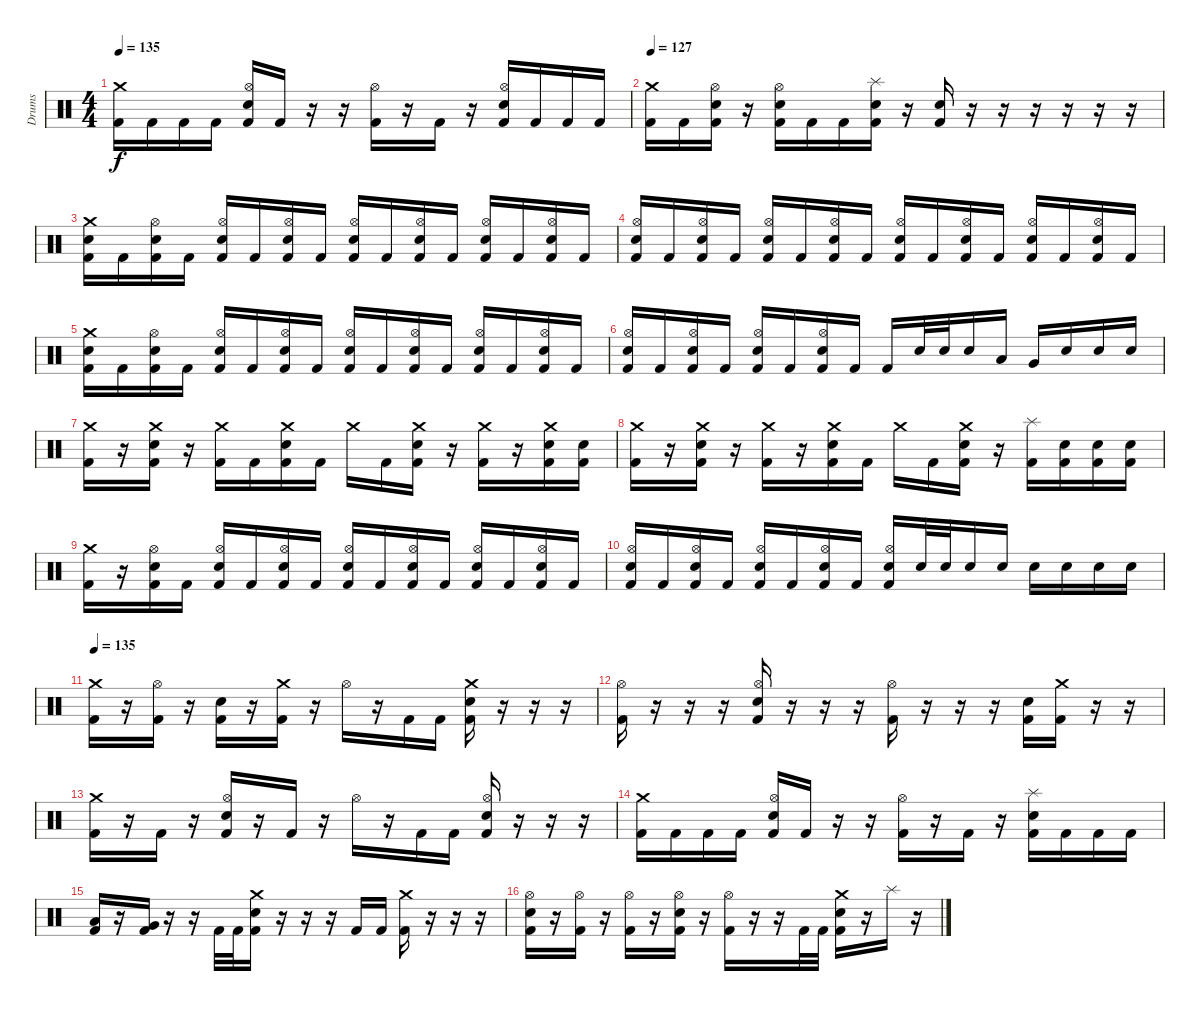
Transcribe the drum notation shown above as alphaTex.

\track ("Drums" "Drums") {instrument percussion}
\staff {score}
\articulation defaults
\ts (4 4)
\tempo 135
\clef neutral
\ks c
("Crash medium (hit)" "Kick (hit) 2").16{dy f} "Kick (hit) 2".16 "Kick (hit) 2".16 "Kick (hit) 2".16 ("Hi-Hat (open)" "Electric Snare (hit)" "Kick (hit) 2").16 "Kick (hit) 2".16 r.16 r.16 ("Hi-Hat (open)" "Kick (hit) 2").16 r.16 "Kick (hit) 2".16 r.16 ("Hi-Hat (open)" "Electric Snare (hit)" "Kick (hit) 2").16 "Kick (hit) 2".16 "Kick (hit) 2".16 "Kick (hit) 2".16 |
\section ("" "")
\tempo 127
("Crash medium (hit)" "Kick (hit) 2").16 "Kick (hit) 2".16 ("Hi-Hat (open)" "Electric Snare (hit)" "Kick (hit) 2").16 r.16 ("Hi-Hat (open)" "Electric Snare (hit)" "Kick (hit) 2").16 "Kick (hit) 2".16 "Kick (hit) 2".16 ("Splash (hit)" "Electric Snare (hit)" "Kick (hit) 2").16 r.16 ("Electric Snare (hit)" "Kick (hit) 2").16 r.16 r.16 r.16 r.16 r.16 r.16 |
("Crash medium (hit)" "Electric Snare (hit)" "Kick (hit) 2").16 "Kick (hit) 2".16 ("Hi-Hat (open)" "Electric Snare (hit)" "Kick (hit) 2").16 "Kick (hit) 2".16 ("Hi-Hat (open)" "Electric Snare (hit)" "Kick (hit) 2").16 "Kick (hit) 2".16 ("Hi-Hat (open)" "Electric Snare (hit)" "Kick (hit) 2").16 "Kick (hit) 2".16 ("Hi-Hat (open)" "Electric Snare (hit)" "Kick (hit) 2").16 "Kick (hit) 2".16 ("Hi-Hat (open)" "Electric Snare (hit)" "Kick (hit) 2").16 "Kick (hit) 2".16 ("Hi-Hat (open)" "Electric Snare (hit)" "Kick (hit) 2").16 "Kick (hit) 2".16 ("Hi-Hat (open)" "Electric Snare (hit)" "Kick (hit) 2").16 "Kick (hit) 2".16 |
("Hi-Hat (open)" "Electric Snare (hit)" "Kick (hit) 2").16 "Kick (hit) 2".16 ("Hi-Hat (open)" "Electric Snare (hit)" "Kick (hit) 2").16 "Kick (hit) 2".16 ("Hi-Hat (open)" "Electric Snare (hit)" "Kick (hit) 2").16 "Kick (hit) 2".16 ("Hi-Hat (open)" "Electric Snare (hit)" "Kick (hit) 2").16 "Kick (hit) 2".16 ("Hi-Hat (open)" "Electric Snare (hit)" "Kick (hit) 2").16 "Kick (hit) 2".16 ("Hi-Hat (open)" "Electric Snare (hit)" "Kick (hit) 2").16 "Kick (hit) 2".16 ("Hi-Hat (open)" "Electric Snare (hit)" "Kick (hit) 2").16 "Kick (hit) 2".16 ("Hi-Hat (open)" "Electric Snare (hit)" "Kick (hit) 2").16 "Kick (hit) 2".16 |
("Crash medium (hit)" "Electric Snare (hit)" "Kick (hit) 2").16 "Kick (hit) 2".16 ("Hi-Hat (open)" "Electric Snare (hit)" "Kick (hit) 2").16 "Kick (hit) 2".16 ("Hi-Hat (open)" "Electric Snare (hit)" "Kick (hit) 2").16 "Kick (hit) 2".16 ("Hi-Hat (open)" "Electric Snare (hit)" "Kick (hit) 2").16 "Kick (hit) 2".16 ("Hi-Hat (open)" "Electric Snare (hit)" "Kick (hit) 2").16 "Kick (hit) 2".16 ("Hi-Hat (open)" "Electric Snare (hit)" "Kick (hit) 2").16 "Kick (hit) 2".16 ("Hi-Hat (open)" "Electric Snare (hit)" "Kick (hit) 2").16 "Kick (hit) 2".16 ("Hi-Hat (open)" "Electric Snare (hit)" "Kick (hit) 2").16 "Kick (hit) 2".16 |
("Hi-Hat (open)" "Electric Snare (hit)" "Kick (hit) 2").16 "Kick (hit) 2".16 ("Hi-Hat (open)" "Electric Snare (hit)" "Kick (hit) 2").16 "Kick (hit) 2".16 ("Hi-Hat (open)" "Electric Snare (hit)" "Kick (hit) 2").16 "Kick (hit) 2".16 ("Hi-Hat (open)" "Electric Snare (hit)" "Kick (hit) 2").16 "Kick (hit) 2".16 "Kick (hit) 2".16 "Electric Snare (hit)".32 "Electric Snare (hit)".32 "Electric Snare (hit)".16 "Low Tom (hit)".16 "Very Low Tom (hit)".16 "Electric Snare (hit)".16 "Electric Snare (hit)".16 "Electric Snare (hit)".16 |
("Crash medium (hit)" "Kick (hit) 2").16 r.16 ("Crash medium (hit)" "Electric Snare (hit)" "Kick (hit) 2").16 r.16 ("Crash medium (hit)" "Kick (hit) 2").16 "Kick (hit) 2".16 ("Crash medium (hit)" "Electric Snare (hit)" "Kick (hit) 2").16 "Kick (hit) 2".16 "Crash medium (hit)".16 "Kick (hit) 2".16 ("Crash medium (hit)" "Electric Snare (hit)" "Kick (hit) 2").16 r.16 ("Crash medium (hit)" "Kick (hit) 2").16 r.16 ("Crash medium (hit)" "Electric Snare (hit)" "Kick (hit) 2").16 ("Electric Snare (hit)" "Kick (hit) 2").16 |
("Crash medium (hit)" "Kick (hit) 2").16 r.16 ("Crash medium (hit)" "Electric Snare (hit)" "Kick (hit) 2").16 r.16 ("Crash medium (hit)" "Kick (hit) 2").16 r.16 ("Crash medium (hit)" "Electric Snare (hit)" "Kick (hit) 2").16 "Kick (hit) 2".16 "Crash medium (hit)".16 "Kick (hit) 2".16 ("Crash medium (hit)" "Electric Snare (hit)" "Kick (hit) 2").16 r.16 ("Splash (hit)" "Kick (hit) 2").16 ("Electric Snare (hit)" "Kick (hit) 2").16 ("Electric Snare (hit)" "Kick (hit) 2").16 ("Electric Snare (hit)" "Kick (hit) 2").16 |
("Crash medium (hit)" "Kick (hit) 2").16 r.16 ("Hi-Hat (open)" "Electric Snare (hit)" "Kick (hit) 2").16 "Kick (hit) 2".16 ("Hi-Hat (open)" "Electric Snare (hit)" "Kick (hit) 2").16 "Kick (hit) 2".16 ("Hi-Hat (open)" "Electric Snare (hit)" "Kick (hit) 2").16 "Kick (hit) 2".16 ("Hi-Hat (open)" "Electric Snare (hit)" "Kick (hit) 2").16 "Kick (hit) 2".16 ("Hi-Hat (open)" "Electric Snare (hit)" "Kick (hit) 2").16 "Kick (hit) 2".16 ("Hi-Hat (open)" "Electric Snare (hit)" "Kick (hit) 2").16 "Kick (hit) 2".16 ("Hi-Hat (open)" "Electric Snare (hit)" "Kick (hit) 2").16 "Kick (hit) 2".16 |
("Hi-Hat (open)" "Electric Snare (hit)" "Kick (hit) 2").16 "Kick (hit) 2".16 ("Hi-Hat (open)" "Electric Snare (hit)" "Kick (hit) 2").16 "Kick (hit) 2".16 ("Hi-Hat (open)" "Electric Snare (hit)" "Kick (hit) 2").16 "Kick (hit) 2".16 ("Hi-Hat (open)" "Electric Snare (hit)" "Kick (hit) 2").16 "Kick (hit) 2".16 ("Hi-Hat (open)" "Electric Snare (hit)" "Kick (hit) 2").16 "Electric Snare (hit)".32 "Electric Snare (hit)".32 "Electric Snare (hit)".16 "Electric Snare (hit)".16 "Electric Snare (hit)".16 "Electric Snare (hit)".16 "Electric Snare (hit)".16 "Electric Snare (hit)".16 |
\section ("" "")
\tempo 135
("Crash medium (hit)" "Kick (hit) 2").16 r.16 ("Hi-Hat (open)" "Kick (hit) 2").16 r.16 ("Electric Snare (hit)" "Kick (hit) 2").16 r.16 ("Crash medium (hit)" "Kick (hit) 2").16 r.16 "Hi-Hat (open)".16 r.16 "Kick (hit) 2".16 "Kick (hit) 2".16 ("Crash medium (hit)" "Electric Snare (hit)" "Kick (hit) 2").16 r.16 r.16 r.16 |
("Hi-Hat (open)" "Kick (hit) 2").16 r.16 r.16 r.16 ("Hi-Hat (open)" "Electric Snare (hit)" "Kick (hit) 2").16 r.16 r.16 r.16 ("Hi-Hat (open)" "Kick (hit) 2").16 r.16 r.16 r.16 ("Electric Snare (hit)" "Kick (hit) 2").16 ("Crash medium (hit)" "Kick (hit) 2").16 r.16 r.16 |
("Crash medium (hit)" "Kick (hit) 2").16 r.16 "Kick (hit) 2".16 r.16 ("Hi-Hat (open)" "Electric Snare (hit)" "Kick (hit) 2").16 r.16 "Kick (hit) 2".16 r.16 "Hi-Hat (open)".16 r.16 "Kick (hit) 2".16 "Kick (hit) 2".16 ("Hi-Hat (open)" "Electric Snare (hit)" "Kick (hit) 2").16 r.16 r.16 r.16 |
("Crash medium (hit)" "Kick (hit) 2").16 "Kick (hit) 2".16 "Kick (hit) 2".16 "Kick (hit) 2".16 ("Hi-Hat (open)" "Electric Snare (hit)" "Kick (hit) 2").16 "Kick (hit) 2".16 r.16 r.16 ("Hi-Hat (open)" "Kick (hit) 2").16 r.16 "Kick (hit) 2".16 r.16 ("Splash (hit)" "Electric Snare (hit)" "Kick (hit) 2").16 "Kick (hit) 2".16 "Kick (hit) 2".16 "Kick (hit) 2".16 |
("Low Tom (hit)" "Kick (hit) 2").16 r.16 ("Very Low Tom (hit)" "Kick (hit) 2").16 r.16 r.16 "Kick (hit) 2".32 "Kick (hit) 2".32 ("Crash medium (hit)" "Electric Snare (hit)" "Kick (hit) 2").16 r.16 r.16 r.16 "Kick (hit) 2".16 "Kick (hit) 2".16 ("Crash medium (hit)" "Kick (hit) 2").16 r.16 r.16 r.16 |
("Hi-Hat (open)" "Electric Snare (hit)" "Kick (hit) 2").16 r.16 ("Hi-Hat (open)" "Kick (hit) 2").16 r.16 ("Hi-Hat (open)" "Kick (hit) 2").16 r.16 ("Hi-Hat (open)" "Electric Snare (hit)" "Kick (hit) 2").16 r.16 ("Hi-Hat (open)" "Kick (hit) 2").16 r.16 r.16 "Kick (hit) 2".32 "Kick (hit) 2".32 ("Crash medium (hit)" "Electric Snare (hit)" "Kick (hit) 2").16 r.16 "Splash (hit)".16 r.16
